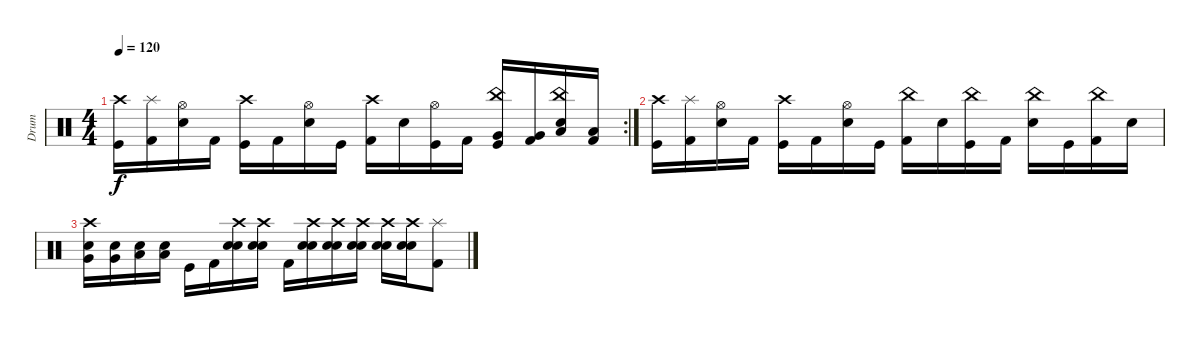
\track ("Drum" "Drum") {instrument percussion}
\staff {score}
\articulation defaults
\rc 2
\ts (4 4)
\tempo 120
\clef neutral
\ks c
("Crash high (hit)" "Kick (hit)").16{dy f} ("Splash (hit)" "Kick (hit) 2").16 ("Hi-Hat (open)" "Snare (hit) 2").16 "Kick (hit) 2".16 ("Crash high (hit)" "Kick (hit)").16 "Kick (hit) 2".16 ("Hi-Hat (open)" "Snare (hit) 2").16 "Kick (hit)".16 ("Crash high (hit)" "Kick (hit) 2").16 "Snare (hit) 2".16 ("Hi-Hat (open)" "Kick (hit)").16 "Kick (hit) 2".16 ("China (hit)" "Very Low Tom (hit)" "Kick (hit)").16 ("Very Low Tom (hit)" "Kick (hit) 2").16 ("China (hit)" "Low Floor Tom (hit)" "Snare (hit) 2").16 ("Low Floor Tom (hit)" "Kick (hit) 2").16 |
("Crash high (hit)" "Kick (hit)").16 ("Splash (hit)" "Kick (hit) 2").16 ("Hi-Hat (open)" "Snare (hit) 2").16 "Kick (hit) 2".16 ("Crash high (hit)" "Kick (hit)").16 "Kick (hit) 2".16 ("Hi-Hat (open)" "Snare (hit) 2").16 "Kick (hit)".16 ("China (hit)" "Kick (hit) 2").16 "Snare (hit) 2".16 ("China (hit)" "Kick (hit)").16 "Kick (hit) 2".16 ("China (hit)" "Snare (hit) 2").16 "Kick (hit)".16 ("China (hit)" "Kick (hit) 2").16 "Snare (hit) 2".16 |
("Crash high (hit)" "Very Low Tom (hit)" "Snare (hit) 2").16 ("Very Low Tom (hit)" "Snare (hit) 2").16 ("Low Floor Tom (hit)" "Snare (hit) 2").16 ("Low Floor Tom (hit)" "Snare (hit) 2").16 "Kick (hit)".16 "Kick (hit) 2".16 ("Crash high (hit)" "Electric Snare (hit)" "Snare (hit) 2").16 ("Crash high (hit)" "Electric Snare (hit)" "Snare (hit) 2").16 "Kick (hit) 2".16 ("Crash high (hit)" "Electric Snare (hit)" "Snare (hit) 2").16 ("Crash high (hit)" "Electric Snare (hit)" "Snare (hit) 2").16 ("Crash high (hit)" "Electric Snare (hit)" "Snare (hit) 2").16 ("Crash high (hit)" "Electric Snare (hit)" "Snare (hit) 2").16 ("Crash high (hit)" "Electric Snare (hit)" "Snare (hit) 2").16 ("Splash (hit)" "Kick (hit) 2").8
